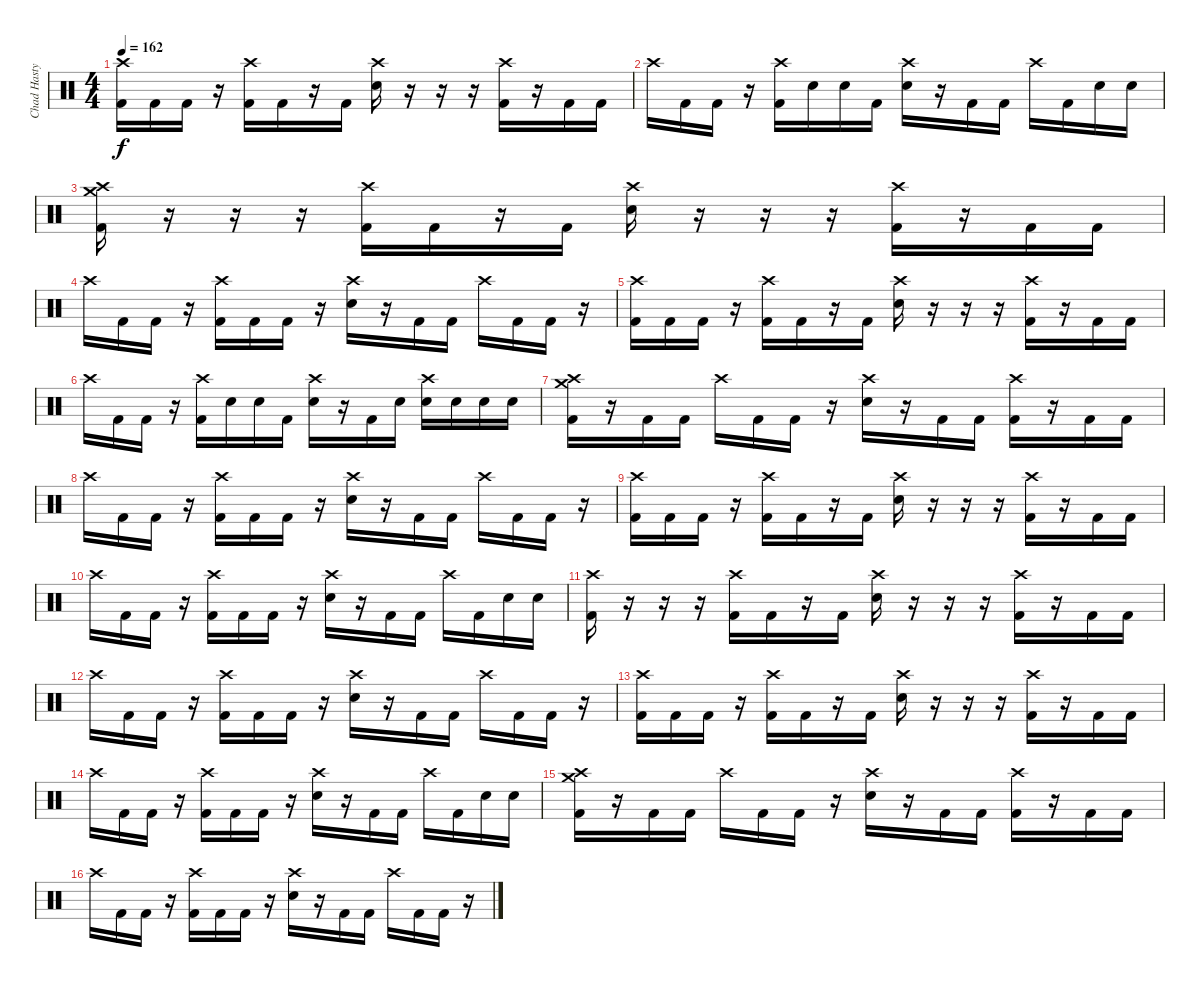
\track ("Chad Hasty" "Chad Hasty") {instrument percussion}
\staff {score}
\articulation defaults
\ts (4 4)
\tempo 162
\clef neutral
\ks c
("Crash high (hit)" "Kick (hit) 2").16{dy f} "Kick (hit) 2".16 "Kick (hit) 2".16 r.16 ("Crash high (hit)" "Kick (hit) 2").16 "Kick (hit) 2".16 r.16 "Kick (hit) 2".16 ("Crash high (hit)" "Snare (hit) 2").16 r.16 r.16 r.16 ("Crash high (hit)" "Kick (hit) 2").16 r.16 "Kick (hit) 2".16 "Kick (hit) 2".16 |
"Crash high (hit)".16 "Kick (hit) 2".16 "Kick (hit) 2".16 r.16 ("Crash high (hit)" "Kick (hit) 2").16 "Snare (hit) 2".16 "Snare (hit) 2".16 "Kick (hit) 2".16 ("Crash high (hit)" "Snare (hit) 2").16 r.16 "Kick (hit) 2".16 "Kick (hit) 2".16 "Crash high (hit)".16 "Kick (hit) 2".16 "Snare (hit) 2".16 "Snare (hit) 2".16 |
("Crash medium (hit)" "Crash high (hit)" "Kick (hit) 2").16 r.16 r.16 r.16 ("Crash high (hit)" "Kick (hit) 2").16 "Kick (hit) 2".16 r.16 "Kick (hit) 2".16 ("Crash high (hit)" "Snare (hit) 2").16 r.16 r.16 r.16 ("Crash high (hit)" "Kick (hit) 2").16 r.16 "Kick (hit) 2".16 "Kick (hit) 2".16 |
"Crash high (hit)".16 "Kick (hit) 2".16 "Kick (hit) 2".16 r.16 ("Crash high (hit)" "Kick (hit) 2").16 "Kick (hit) 2".16 "Kick (hit) 2".16 r.16 ("Crash high (hit)" "Snare (hit) 2").16 r.16 "Kick (hit) 2".16 "Kick (hit) 2".16 "Crash high (hit)".16 "Kick (hit) 2".16 "Kick (hit) 2".16 r.16 |
("Crash high (hit)" "Kick (hit) 2").16 "Kick (hit) 2".16 "Kick (hit) 2".16 r.16 ("Crash high (hit)" "Kick (hit) 2").16 "Kick (hit) 2".16 r.16 "Kick (hit) 2".16 ("Crash high (hit)" "Snare (hit) 2").16 r.16 r.16 r.16 ("Crash high (hit)" "Kick (hit) 2").16 r.16 "Kick (hit) 2".16 "Kick (hit) 2".16 |
"Crash high (hit)".16 "Kick (hit) 2".16 "Kick (hit) 2".16 r.16 ("Crash high (hit)" "Kick (hit) 2").16 "Snare (hit) 2".16 "Snare (hit) 2".16 "Kick (hit) 2".16 ("Crash high (hit)" "Snare (hit) 2").16 r.16 "Kick (hit) 2".16 "Snare (hit) 2".16 ("Crash high (hit)" "Snare (hit) 2").16 "Snare (hit) 2".16 "Snare (hit) 2".16 "Snare (hit) 2".16 |
("Crash medium (hit)" "Crash high (hit)" "Kick (hit) 2").16 r.16 "Kick (hit) 2".16 "Kick (hit) 2".16 "Crash high (hit)".16 "Kick (hit) 2".16 "Kick (hit) 2".16 r.16 ("Crash high (hit)" "Snare (hit) 2").16 r.16 "Kick (hit) 2".16 "Kick (hit) 2".16 ("Crash high (hit)" "Kick (hit) 2").16 r.16 "Kick (hit) 2".16 "Kick (hit) 2".16 |
"Crash high (hit)".16 "Kick (hit) 2".16 "Kick (hit) 2".16 r.16 ("Crash high (hit)" "Kick (hit) 2").16 "Kick (hit) 2".16 "Kick (hit) 2".16 r.16 ("Crash high (hit)" "Snare (hit) 2").16 r.16 "Kick (hit) 2".16 "Kick (hit) 2".16 "Crash high (hit)".16 "Kick (hit) 2".16 "Kick (hit) 2".16 r.16 |
("Crash high (hit)" "Kick (hit) 2").16 "Kick (hit) 2".16 "Kick (hit) 2".16 r.16 ("Crash high (hit)" "Kick (hit) 2").16 "Kick (hit) 2".16 r.16 "Kick (hit) 2".16 ("Crash high (hit)" "Snare (hit) 2").16 r.16 r.16 r.16 ("Crash high (hit)" "Kick (hit) 2").16 r.16 "Kick (hit) 2".16 "Kick (hit) 2".16 |
"Crash high (hit)".16 "Kick (hit) 2".16 "Kick (hit) 2".16 r.16 ("Crash high (hit)" "Kick (hit) 2").16 "Kick (hit) 2".16 "Kick (hit) 2".16 r.16 ("Crash high (hit)" "Snare (hit) 2").16 r.16 "Kick (hit) 2".16 "Kick (hit) 2".16 "Crash high (hit)".16 "Kick (hit) 2".16 "Snare (hit) 2".16 "Snare (hit) 2".16 |
("Crash high (hit)" "Kick (hit) 2").16 r.16 r.16 r.16 ("Crash high (hit)" "Kick (hit) 2").16 "Kick (hit) 2".16 r.16 "Kick (hit) 2".16 ("Crash high (hit)" "Snare (hit) 2").16 r.16 r.16 r.16 ("Crash high (hit)" "Kick (hit) 2").16 r.16 "Kick (hit) 2".16 "Kick (hit) 2".16 |
"Crash high (hit)".16 "Kick (hit) 2".16 "Kick (hit) 2".16 r.16 ("Crash high (hit)" "Kick (hit) 2").16 "Kick (hit) 2".16 "Kick (hit) 2".16 r.16 ("Crash high (hit)" "Snare (hit) 2").16 r.16 "Kick (hit) 2".16 "Kick (hit) 2".16 "Crash high (hit)".16 "Kick (hit) 2".16 "Kick (hit) 2".16 r.16 |
("Crash high (hit)" "Kick (hit) 2").16 "Kick (hit) 2".16 "Kick (hit) 2".16 r.16 ("Crash high (hit)" "Kick (hit) 2").16 "Kick (hit) 2".16 r.16 "Kick (hit) 2".16 ("Crash high (hit)" "Snare (hit) 2").16 r.16 r.16 r.16 ("Crash high (hit)" "Kick (hit) 2").16 r.16 "Kick (hit) 2".16 "Kick (hit) 2".16 |
"Crash high (hit)".16 "Kick (hit) 2".16 "Kick (hit) 2".16 r.16 ("Crash high (hit)" "Kick (hit) 2").16 "Kick (hit) 2".16 "Kick (hit) 2".16 r.16 ("Crash high (hit)" "Snare (hit) 2").16 r.16 "Kick (hit) 2".16 "Kick (hit) 2".16 "Crash high (hit)".16 "Kick (hit) 2".16 "Snare (hit) 2".16 "Snare (hit) 2".16 |
("Crash medium (hit)" "Crash high (hit)" "Kick (hit) 2").16{volume 10} r.16 "Kick (hit) 2".16 "Kick (hit) 2".16 "Crash high (hit)".16 "Kick (hit) 2".16 "Kick (hit) 2".16 r.16 ("Crash high (hit)" "Snare (hit) 2").16 r.16 "Kick (hit) 2".16 "Kick (hit) 2".16 ("Crash high (hit)" "Kick (hit) 2").16 r.16 "Kick (hit) 2".16 "Kick (hit) 2".16 |
"Crash high (hit)".16 "Kick (hit) 2".16 "Kick (hit) 2".16 r.16 ("Crash high (hit)" "Kick (hit) 2").16 "Kick (hit) 2".16 "Kick (hit) 2".16 r.16 ("Crash high (hit)" "Snare (hit) 2").16 r.16 "Kick (hit) 2".16 "Kick (hit) 2".16 "Crash high (hit)".16 "Kick (hit) 2".16 "Kick (hit) 2".16 r.16
